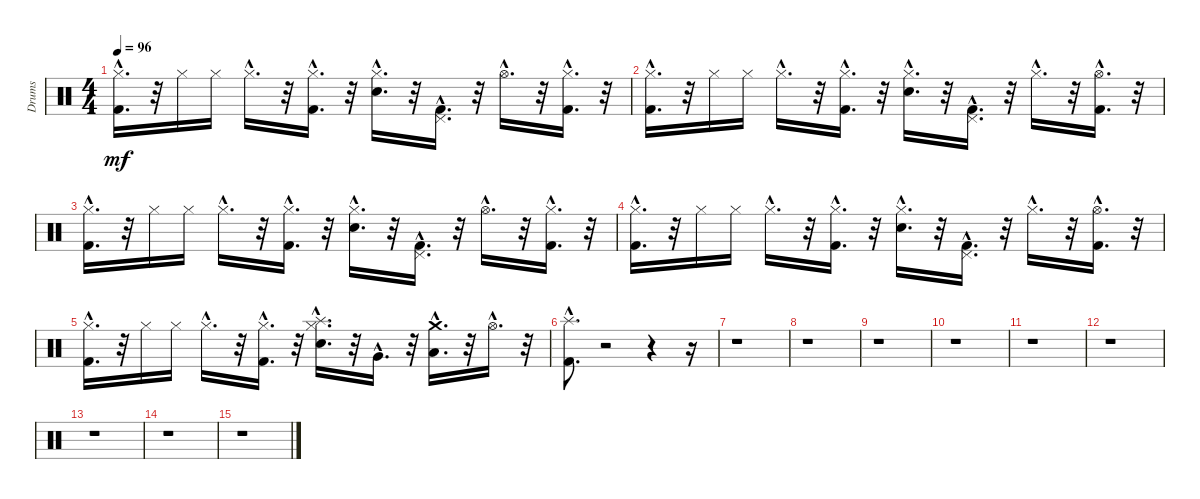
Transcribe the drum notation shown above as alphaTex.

\track ("Drums" "Drums") {instrument percussion}
\staff {score}
\articulation defaults
\ts (4 4)
\tempo 96
\clef neutral
\ks c
("Kick (hit) 2"{hac} "Hi-Hat (closed)"{hac}).16{d dy mf} r.32 "Hi-Hat (closed)".16 "Hi-Hat (closed)".16 "Hi-Hat (closed)"{hac}.16{d} r.32 ("Hi-Hat (closed)"{hac} "Kick (hit) 2"{hac}).16{d} r.32 ("Hi-Hat (closed)"{hac} "Snare (hit) 2"{hac}).16{d} r.32 ("Kick (hit) 2"{hac} "Pedal Hi-Hat (hit)"{hac}).16{d} r.32 "Hi-Hat (open)"{hac}.16{d} r.32 ("Hi-Hat (closed)"{hac} "Kick (hit) 2"{hac}).16{d} r.32 |
("Kick (hit) 2"{hac} "Hi-Hat (closed)"{hac}).16{d} r.32 "Hi-Hat (closed)".16 "Hi-Hat (closed)".16 "Hi-Hat (closed)"{hac}.16{d} r.32 ("Kick (hit) 2"{hac} "Hi-Hat (closed)"{hac}).16{d} r.32 ("Snare (hit) 2"{hac} "Hi-Hat (closed)"{hac}).16{d} r.32 ("Pedal Hi-Hat (hit)"{hac} "Kick (hit) 2"{hac}).16{d} r.32 "Hi-Hat (closed)"{hac}.16{d} r.32 ("Hi-Hat (open)"{hac} "Kick (hit) 2"{hac}).16{d} r.32 |
("Hi-Hat (closed)"{hac} "Kick (hit) 2"{hac}).16{d} r.32 "Hi-Hat (closed)".16 "Hi-Hat (closed)".16 "Hi-Hat (closed)"{hac}.16{d} r.32 ("Kick (hit) 2"{hac} "Hi-Hat (closed)"{hac}).16{d} r.32 ("Hi-Hat (closed)"{hac} "Snare (hit) 2"{hac}).16{d} r.32 ("Pedal Hi-Hat (hit)"{hac} "Kick (hit) 2"{hac}).16{d} r.32 "Hi-Hat (open)"{hac}.16{d} r.32 ("Hi-Hat (closed)"{hac} "Kick (hit) 2"{hac}).16{d} r.32 |
("Kick (hit) 2"{hac} "Hi-Hat (closed)"{hac}).16{d} r.32 "Hi-Hat (closed)".16 "Hi-Hat (closed)".16 "Hi-Hat (closed)"{hac}.16{d} r.32 ("Hi-Hat (closed)"{hac} "Kick (hit) 2"{hac}).16{d} r.32 ("Snare (hit) 2"{hac} "Hi-Hat (closed)"{hac}).16{d} r.32 ("Kick (hit) 2"{hac} "Pedal Hi-Hat (hit)"{hac}).16{d} r.32 "Hi-Hat (closed)"{hac}.16{d} r.32 ("Hi-Hat (open)"{hac} "Kick (hit) 2"{hac}).16{d} r.32 |
("Kick (hit) 2"{hac} "Hi-Hat (closed)"{hac}).16{d} r.32 "Hi-Hat (closed)".16 "Hi-Hat (closed)".16 "Hi-Hat (closed)"{hac}.16{d} r.32 ("Kick (hit) 2"{hac} "Hi-Hat (closed)"{hac}).16{d} r.32 ("Snare (hit) 2"{hac} "Splash (hit)"{hac} "Hi-Hat (closed)"{hac}).16{d} r.32 "Very Low Tom (hit)"{hac}.16{d} r.32 ("Crash medium (hit)"{hac} "Low Floor Tom (hit)"{hac}).16{d} r.32 "Hi-Hat (open)"{hac}.16{d} r.32 |
("Splash (hit)"{hac} "Kick (hit) 2"{hac}).8{d} r.2 r.4 r.16 |
r.1 |
r.1 |
r.1 |
r.1 |
r.1 |
r.1 |
r.1 |
r.1 |
r.1
